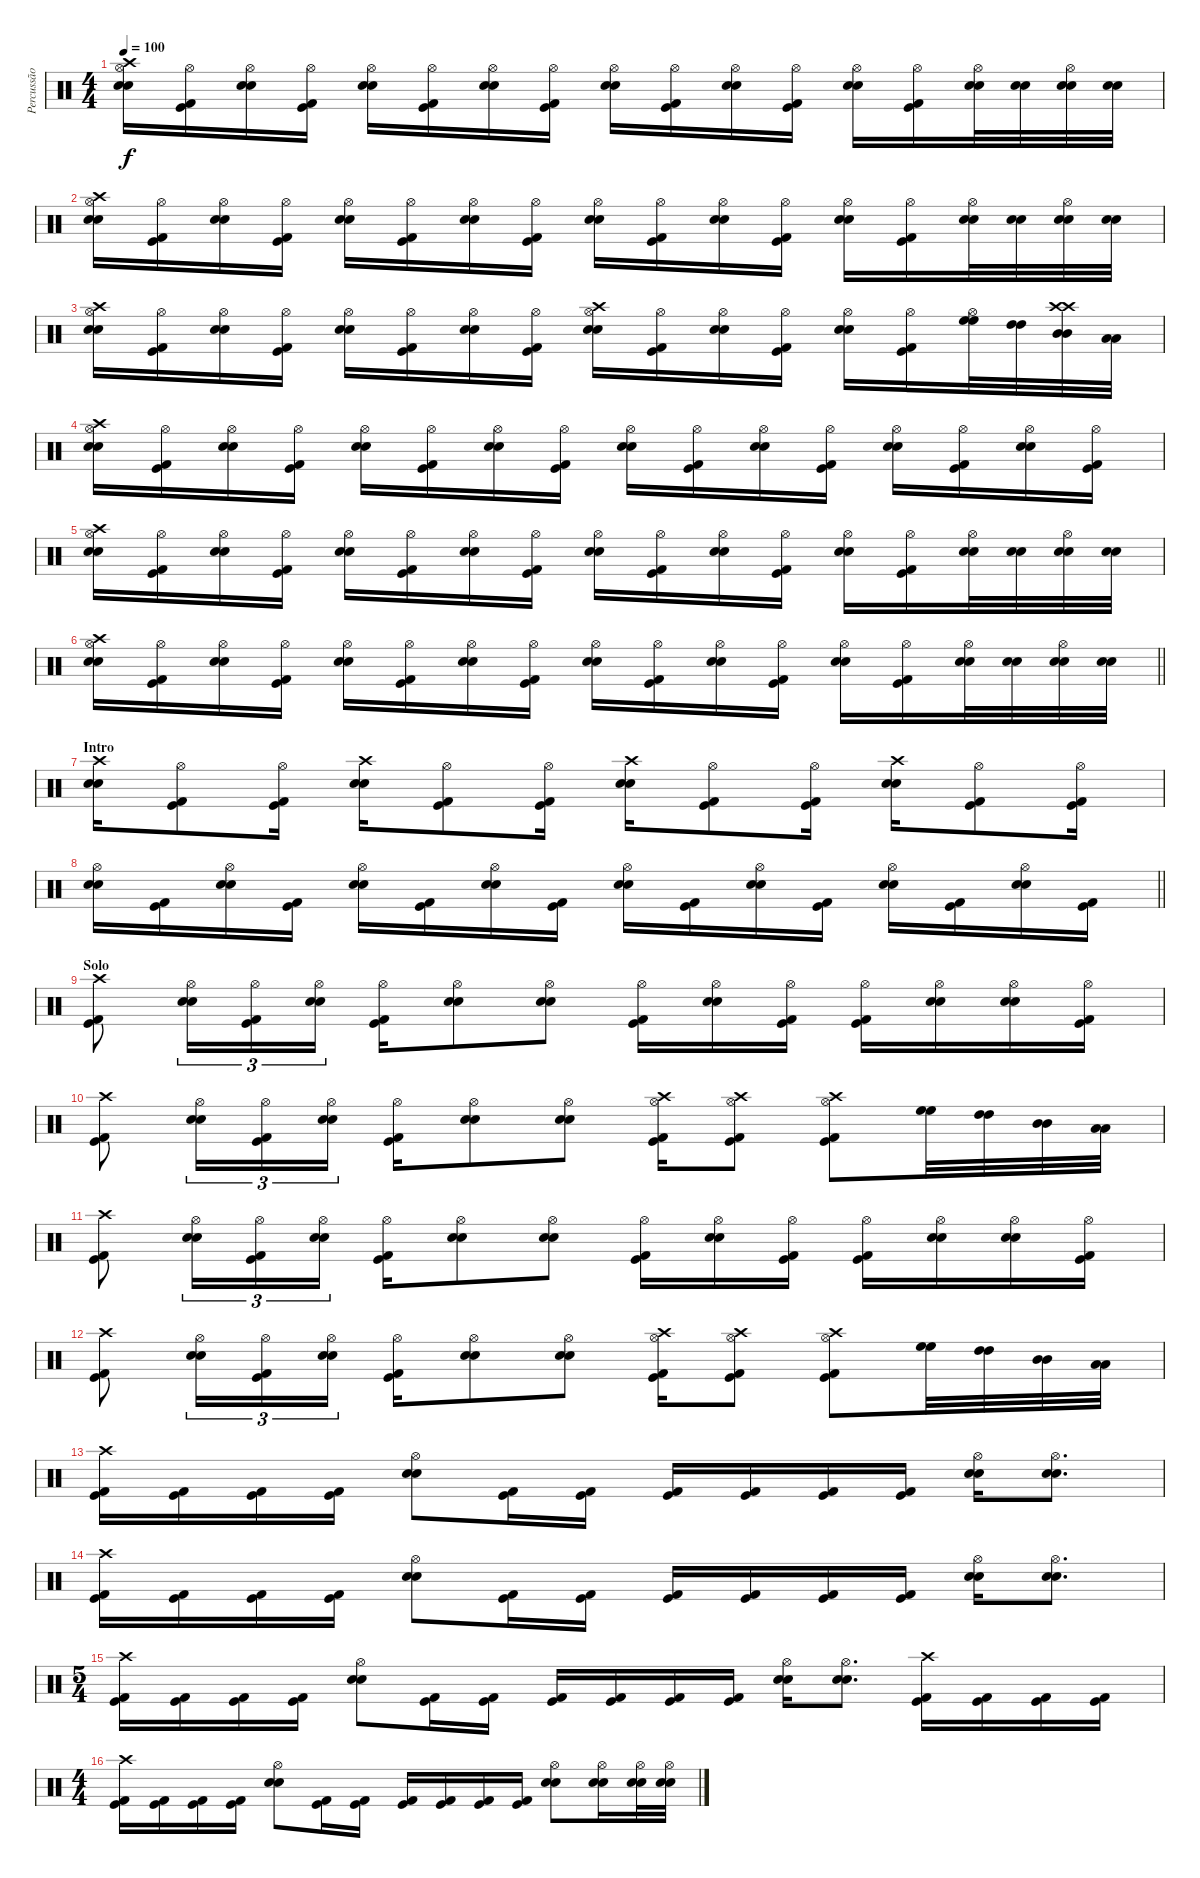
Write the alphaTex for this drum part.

\track ("Percussão" "Percussão") {instrument percussion}
\staff {score}
\articulation defaults
\ts (4 4)
\tempo 100
\clef neutral
\ks c
("Crash high (hit)" "Hi-Hat (open)" "Electric Snare (hit)" "Snare (hit) 2").16{dy f} ("Hi-Hat (open)" "Kick (hit) 2" "Kick (hit)").16 ("Hi-Hat (open)" "Electric Snare (hit)" "Snare (hit) 2").16 ("Hi-Hat (open)" "Kick (hit) 2" "Kick (hit)").16 ("Hi-Hat (open)" "Electric Snare (hit)" "Snare (hit) 2").16 ("Hi-Hat (open)" "Kick (hit) 2" "Kick (hit)").16 ("Hi-Hat (open)" "Electric Snare (hit)" "Snare (hit) 2").16 ("Hi-Hat (open)" "Kick (hit) 2" "Kick (hit)").16 ("Hi-Hat (open)" "Electric Snare (hit)" "Snare (hit) 2").16 ("Hi-Hat (open)" "Kick (hit) 2" "Kick (hit)").16 ("Hi-Hat (open)" "Electric Snare (hit)" "Snare (hit) 2").16 ("Hi-Hat (open)" "Kick (hit) 2" "Kick (hit)").16 ("Hi-Hat (open)" "Electric Snare (hit)" "Snare (hit) 2").16 ("Hi-Hat (open)" "Kick (hit) 2" "Kick (hit)").16 ("Hi-Hat (open)" "Electric Snare (hit)" "Snare (hit) 2").32 ("Electric Snare (hit)" "Snare (hit) 2").32 ("Hi-Hat (open)" "Electric Snare (hit)" "Snare (hit) 2").32 ("Electric Snare (hit)" "Snare (hit) 2").32 |
("Crash high (hit)" "Hi-Hat (open)" "Electric Snare (hit)" "Snare (hit) 2").16 ("Hi-Hat (open)" "Kick (hit) 2" "Kick (hit)").16 ("Hi-Hat (open)" "Electric Snare (hit)" "Snare (hit) 2").16 ("Hi-Hat (open)" "Kick (hit) 2" "Kick (hit)").16 ("Hi-Hat (open)" "Electric Snare (hit)" "Snare (hit) 2").16 ("Hi-Hat (open)" "Kick (hit) 2" "Kick (hit)").16 ("Hi-Hat (open)" "Electric Snare (hit)" "Snare (hit) 2").16 ("Hi-Hat (open)" "Kick (hit) 2" "Kick (hit)").16 ("Hi-Hat (open)" "Electric Snare (hit)" "Snare (hit) 2").16 ("Hi-Hat (open)" "Kick (hit) 2" "Kick (hit)").16 ("Hi-Hat (open)" "Electric Snare (hit)" "Snare (hit) 2").16 ("Hi-Hat (open)" "Kick (hit) 2" "Kick (hit)").16 ("Hi-Hat (open)" "Electric Snare (hit)" "Snare (hit) 2").16 ("Hi-Hat (open)" "Kick (hit) 2" "Kick (hit)").16 ("Hi-Hat (open)" "Electric Snare (hit)" "Snare (hit) 2").32 ("Electric Snare (hit)" "Snare (hit) 2").32 ("Hi-Hat (open)" "Electric Snare (hit)" "Snare (hit) 2").32 ("Electric Snare (hit)" "Snare (hit) 2").32 |
("Crash high (hit)" "Hi-Hat (open)" "Electric Snare (hit)" "Snare (hit) 2").16 ("Hi-Hat (open)" "Kick (hit) 2" "Kick (hit)").16 ("Hi-Hat (open)" "Electric Snare (hit)" "Snare (hit) 2").16 ("Hi-Hat (open)" "Kick (hit) 2" "Kick (hit)").16 ("Hi-Hat (open)" "Electric Snare (hit)" "Snare (hit) 2").16 ("Hi-Hat (open)" "Kick (hit) 2" "Kick (hit)").16 ("Hi-Hat (open)" "Electric Snare (hit)" "Snare (hit) 2").16 ("Hi-Hat (open)" "Kick (hit) 2" "Kick (hit)").16 ("Crash high (hit)" "Hi-Hat (open)" "Electric Snare (hit)" "Snare (hit) 2").16 ("Hi-Hat (open)" "Kick (hit) 2" "Kick (hit)").16 ("Hi-Hat (open)" "Electric Snare (hit)" "Snare (hit) 2").16 ("Hi-Hat (open)" "Kick (hit) 2" "Kick (hit)").16 ("Hi-Hat (open)" "Electric Snare (hit)" "Snare (hit) 2").16 ("Hi-Hat (open)" "Kick (hit) 2" "Kick (hit)").16 ("Hi-Hat (open)" "High Floor Tom (hit)" "High Floor Tom (hit)").32 ("High Tom (hit)" "High Tom (hit)").32 ("Crash high (hit)" "Crash high (hit)" "Mid Tom (hit)" "Mid Tom (hit)").32 ("Low Tom (hit)" "Low Tom (hit)").32 |
("Crash high (hit)" "Hi-Hat (open)" "Electric Snare (hit)" "Snare (hit) 2").16 ("Hi-Hat (open)" "Kick (hit) 2" "Kick (hit)").16 ("Hi-Hat (open)" "Electric Snare (hit)" "Snare (hit) 2").16 ("Hi-Hat (open)" "Kick (hit) 2" "Kick (hit)").16 ("Hi-Hat (open)" "Electric Snare (hit)" "Snare (hit) 2").16 ("Hi-Hat (open)" "Kick (hit) 2" "Kick (hit)").16 ("Hi-Hat (open)" "Electric Snare (hit)" "Snare (hit) 2").16 ("Hi-Hat (open)" "Kick (hit) 2" "Kick (hit)").16 ("Hi-Hat (open)" "Electric Snare (hit)" "Snare (hit) 2").16 ("Hi-Hat (open)" "Kick (hit) 2" "Kick (hit)").16 ("Hi-Hat (open)" "Electric Snare (hit)" "Snare (hit) 2").16 ("Hi-Hat (open)" "Kick (hit) 2" "Kick (hit)").16 ("Hi-Hat (open)" "Electric Snare (hit)" "Snare (hit) 2").16 ("Hi-Hat (open)" "Kick (hit) 2" "Kick (hit)").16 ("Hi-Hat (open)" "Electric Snare (hit)" "Snare (hit) 2").16 ("Hi-Hat (open)" "Kick (hit) 2" "Kick (hit)").16 |
("Crash high (hit)" "Hi-Hat (open)" "Electric Snare (hit)" "Snare (hit) 2").16 ("Hi-Hat (open)" "Kick (hit) 2" "Kick (hit)").16 ("Hi-Hat (open)" "Electric Snare (hit)" "Snare (hit) 2").16 ("Hi-Hat (open)" "Kick (hit) 2" "Kick (hit)").16 ("Hi-Hat (open)" "Electric Snare (hit)" "Snare (hit) 2").16 ("Hi-Hat (open)" "Kick (hit) 2" "Kick (hit)").16 ("Hi-Hat (open)" "Electric Snare (hit)" "Snare (hit) 2").16 ("Hi-Hat (open)" "Kick (hit) 2" "Kick (hit)").16 ("Hi-Hat (open)" "Electric Snare (hit)" "Snare (hit) 2").16 ("Hi-Hat (open)" "Kick (hit) 2" "Kick (hit)").16 ("Hi-Hat (open)" "Electric Snare (hit)" "Snare (hit) 2").16 ("Hi-Hat (open)" "Kick (hit) 2" "Kick (hit)").16 ("Hi-Hat (open)" "Electric Snare (hit)" "Snare (hit) 2").16 ("Hi-Hat (open)" "Kick (hit) 2" "Kick (hit)").16 ("Hi-Hat (open)" "Electric Snare (hit)" "Snare (hit) 2").32 ("Electric Snare (hit)" "Snare (hit) 2").32 ("Hi-Hat (open)" "Electric Snare (hit)" "Snare (hit) 2").32 ("Electric Snare (hit)" "Snare (hit) 2").32 |
\barLineRight lightlight
("Crash high (hit)" "Hi-Hat (open)" "Electric Snare (hit)" "Snare (hit) 2").16 ("Hi-Hat (open)" "Kick (hit) 2" "Kick (hit)").16 ("Hi-Hat (open)" "Electric Snare (hit)" "Snare (hit) 2").16 ("Hi-Hat (open)" "Kick (hit) 2" "Kick (hit)").16 ("Hi-Hat (open)" "Electric Snare (hit)" "Snare (hit) 2").16 ("Hi-Hat (open)" "Kick (hit) 2" "Kick (hit)").16 ("Hi-Hat (open)" "Electric Snare (hit)" "Snare (hit) 2").16 ("Hi-Hat (open)" "Kick (hit) 2" "Kick (hit)").16 ("Hi-Hat (open)" "Electric Snare (hit)" "Snare (hit) 2").16 ("Hi-Hat (open)" "Kick (hit) 2" "Kick (hit)").16 ("Hi-Hat (open)" "Electric Snare (hit)" "Snare (hit) 2").16 ("Hi-Hat (open)" "Kick (hit) 2" "Kick (hit)").16 ("Hi-Hat (open)" "Electric Snare (hit)" "Snare (hit) 2").16 ("Hi-Hat (open)" "Kick (hit) 2" "Kick (hit)").16 ("Hi-Hat (open)" "Electric Snare (hit)" "Snare (hit) 2").32 ("Electric Snare (hit)" "Snare (hit) 2").32 ("Hi-Hat (open)" "Electric Snare (hit)" "Snare (hit) 2").32 ("Electric Snare (hit)" "Snare (hit) 2").32 |
\section ("" "Intro")
("Crash high (hit)" "Electric Snare (hit)" "Snare (hit) 2").16 ("Hi-Hat (open)" "Kick (hit) 2" "Kick (hit)").8 ("Hi-Hat (open)" "Kick (hit) 2" "Kick (hit)").16 ("Crash high (hit)" "Electric Snare (hit)" "Snare (hit) 2").16 ("Hi-Hat (open)" "Kick (hit) 2" "Kick (hit)").8 ("Hi-Hat (open)" "Kick (hit) 2" "Kick (hit)").16 ("Crash high (hit)" "Electric Snare (hit)" "Snare (hit) 2").16 ("Hi-Hat (open)" "Kick (hit) 2" "Kick (hit)").8 ("Hi-Hat (open)" "Kick (hit) 2" "Kick (hit)").16 ("Crash high (hit)" "Electric Snare (hit)" "Snare (hit) 2").16 ("Hi-Hat (open)" "Kick (hit) 2" "Kick (hit)").8 ("Hi-Hat (open)" "Kick (hit) 2" "Kick (hit)").16 |
\barLineRight lightlight
("Hi-Hat (open)" "Electric Snare (hit)" "Snare (hit) 2").16 ("Kick (hit) 2" "Kick (hit)").16 ("Hi-Hat (open)" "Electric Snare (hit)" "Snare (hit) 2").16 ("Kick (hit) 2" "Kick (hit)").16 ("Hi-Hat (open)" "Electric Snare (hit)" "Snare (hit) 2").16 ("Kick (hit) 2" "Kick (hit)").16 ("Hi-Hat (open)" "Electric Snare (hit)" "Snare (hit) 2").16 ("Kick (hit) 2" "Kick (hit)").16 ("Hi-Hat (open)" "Electric Snare (hit)" "Snare (hit) 2").16 ("Kick (hit) 2" "Kick (hit)").16 ("Hi-Hat (open)" "Electric Snare (hit)" "Snare (hit) 2").16 ("Kick (hit) 2" "Kick (hit)").16 ("Hi-Hat (open)" "Electric Snare (hit)" "Snare (hit) 2").16 ("Kick (hit) 2" "Kick (hit)").16 ("Hi-Hat (open)" "Electric Snare (hit)" "Snare (hit) 2").16 ("Kick (hit) 2" "Kick (hit)").16 |
\section ("" "Solo")
("Crash high (hit)" "Kick (hit) 2" "Kick (hit)").8 ("Hi-Hat (open)" "Electric Snare (hit)" "Snare (hit) 2").16{tu (3 2)} ("Hi-Hat (open)" "Kick (hit) 2" "Kick (hit)").16{tu (3 2)} ("Hi-Hat (open)" "Electric Snare (hit)" "Snare (hit) 2").16{tu (3 2)} ("Hi-Hat (open)" "Kick (hit) 2" "Kick (hit)").16 ("Hi-Hat (open)" "Electric Snare (hit)" "Snare (hit) 2").8 ("Hi-Hat (open)" "Electric Snare (hit)" "Snare (hit) 2").8 ("Hi-Hat (open)" "Kick (hit) 2" "Kick (hit)").16 ("Hi-Hat (open)" "Electric Snare (hit)" "Snare (hit) 2").16 ("Hi-Hat (open)" "Kick (hit) 2" "Kick (hit)").16 ("Hi-Hat (open)" "Kick (hit) 2" "Kick (hit)").16 ("Hi-Hat (open)" "Electric Snare (hit)" "Snare (hit) 2").16 ("Hi-Hat (open)" "Electric Snare (hit)" "Snare (hit) 2").16 ("Hi-Hat (open)" "Kick (hit) 2" "Kick (hit)").16 |
("Crash high (hit)" "Kick (hit) 2" "Kick (hit)").8 ("Hi-Hat (open)" "Electric Snare (hit)" "Snare (hit) 2").16{tu (3 2)} ("Hi-Hat (open)" "Kick (hit) 2" "Kick (hit)").16{tu (3 2)} ("Hi-Hat (open)" "Electric Snare (hit)" "Snare (hit) 2").16{tu (3 2)} ("Hi-Hat (open)" "Kick (hit) 2" "Kick (hit)").16 ("Hi-Hat (open)" "Electric Snare (hit)" "Snare (hit) 2").8 ("Hi-Hat (open)" "Electric Snare (hit)" "Snare (hit) 2").8 ("Crash high (hit)" "Hi-Hat (open)" "Kick (hit) 2" "Kick (hit)").16 ("Crash high (hit)" "Hi-Hat (open)" "Kick (hit) 2" "Kick (hit)").8 ("Crash high (hit)" "Hi-Hat (open)" "Kick (hit) 2" "Kick (hit)").8 ("High Floor Tom (hit)" "High Floor Tom (hit)").32 ("High Tom (hit)" "High Tom (hit)").32 ("Mid Tom (hit)" "Mid Tom (hit)").32 ("Low Tom (hit)" "Low Tom (hit)").32 |
("Crash high (hit)" "Kick (hit) 2" "Kick (hit)").8 ("Hi-Hat (open)" "Electric Snare (hit)" "Snare (hit) 2").16{tu (3 2)} ("Hi-Hat (open)" "Kick (hit) 2" "Kick (hit)").16{tu (3 2)} ("Hi-Hat (open)" "Electric Snare (hit)" "Snare (hit) 2").16{tu (3 2)} ("Hi-Hat (open)" "Kick (hit) 2" "Kick (hit)").16 ("Hi-Hat (open)" "Electric Snare (hit)" "Snare (hit) 2").8 ("Hi-Hat (open)" "Electric Snare (hit)" "Snare (hit) 2").8 ("Hi-Hat (open)" "Kick (hit) 2" "Kick (hit)").16 ("Hi-Hat (open)" "Electric Snare (hit)" "Snare (hit) 2").16 ("Hi-Hat (open)" "Kick (hit) 2" "Kick (hit)").16 ("Hi-Hat (open)" "Kick (hit) 2" "Kick (hit)").16 ("Hi-Hat (open)" "Electric Snare (hit)" "Snare (hit) 2").16 ("Hi-Hat (open)" "Electric Snare (hit)" "Snare (hit) 2").16 ("Hi-Hat (open)" "Kick (hit) 2" "Kick (hit)").16 |
("Crash high (hit)" "Kick (hit) 2" "Kick (hit)").8 ("Hi-Hat (open)" "Electric Snare (hit)" "Snare (hit) 2").16{tu (3 2)} ("Hi-Hat (open)" "Kick (hit) 2" "Kick (hit)").16{tu (3 2)} ("Hi-Hat (open)" "Electric Snare (hit)" "Snare (hit) 2").16{tu (3 2)} ("Hi-Hat (open)" "Kick (hit) 2" "Kick (hit)").16 ("Hi-Hat (open)" "Electric Snare (hit)" "Snare (hit) 2").8 ("Hi-Hat (open)" "Electric Snare (hit)" "Snare (hit) 2").8 ("Crash high (hit)" "Hi-Hat (open)" "Kick (hit) 2" "Kick (hit)").16 ("Crash high (hit)" "Hi-Hat (open)" "Kick (hit) 2" "Kick (hit)").8 ("Crash high (hit)" "Hi-Hat (open)" "Kick (hit) 2" "Kick (hit)").8 ("High Floor Tom (hit)" "High Floor Tom (hit)").32 ("High Tom (hit)" "High Tom (hit)").32 ("Mid Tom (hit)" "Mid Tom (hit)").32 ("Low Tom (hit)" "Low Tom (hit)").32 |
("Crash high (hit)" "Kick (hit) 2" "Kick (hit)").16 ("Kick (hit) 2" "Kick (hit)").16 ("Kick (hit) 2" "Kick (hit)").16 ("Kick (hit) 2" "Kick (hit)").16 ("Hi-Hat (open)" "Electric Snare (hit)" "Snare (hit) 2").8 ("Kick (hit) 2" "Kick (hit)").16 ("Kick (hit) 2" "Kick (hit)").16 ("Kick (hit) 2" "Kick (hit)").16 ("Kick (hit) 2" "Kick (hit)").16 ("Kick (hit) 2" "Kick (hit)").16 ("Kick (hit) 2" "Kick (hit)").16 ("Hi-Hat (open)" "Electric Snare (hit)" "Snare (hit) 2").16 ("Hi-Hat (open)" "Electric Snare (hit)" "Snare (hit) 2").8{d} |
("Crash high (hit)" "Kick (hit) 2" "Kick (hit)").16 ("Kick (hit) 2" "Kick (hit)").16 ("Kick (hit) 2" "Kick (hit)").16 ("Kick (hit) 2" "Kick (hit)").16 ("Hi-Hat (open)" "Electric Snare (hit)" "Snare (hit) 2").8 ("Kick (hit) 2" "Kick (hit)").16 ("Kick (hit) 2" "Kick (hit)").16 ("Kick (hit) 2" "Kick (hit)").16 ("Kick (hit) 2" "Kick (hit)").16 ("Kick (hit) 2" "Kick (hit)").16 ("Kick (hit) 2" "Kick (hit)").16 ("Hi-Hat (open)" "Electric Snare (hit)" "Snare (hit) 2").16 ("Hi-Hat (open)" "Electric Snare (hit)" "Snare (hit) 2").8{d} |
\ts (5 4)
("Crash high (hit)" "Kick (hit) 2" "Kick (hit)").16 ("Kick (hit) 2" "Kick (hit)").16 ("Kick (hit) 2" "Kick (hit)").16 ("Kick (hit) 2" "Kick (hit)").16 ("Hi-Hat (open)" "Electric Snare (hit)" "Snare (hit) 2").8 ("Kick (hit) 2" "Kick (hit)").16 ("Kick (hit) 2" "Kick (hit)").16 ("Kick (hit) 2" "Kick (hit)").16 ("Kick (hit) 2" "Kick (hit)").16 ("Kick (hit) 2" "Kick (hit)").16 ("Kick (hit) 2" "Kick (hit)").16 ("Hi-Hat (open)" "Electric Snare (hit)" "Snare (hit) 2").16 ("Hi-Hat (open)" "Electric Snare (hit)" "Snare (hit) 2").8{d} ("Crash high (hit)" "Kick (hit) 2" "Kick (hit)").16 ("Kick (hit) 2" "Kick (hit)").16 ("Kick (hit) 2" "Kick (hit)").16 ("Kick (hit) 2" "Kick (hit)").16 |
\ts (4 4)
("Crash high (hit)" "Kick (hit) 2" "Kick (hit)").16 ("Kick (hit) 2" "Kick (hit)").16 ("Kick (hit) 2" "Kick (hit)").16 ("Kick (hit) 2" "Kick (hit)").16 ("Hi-Hat (open)" "Electric Snare (hit)" "Snare (hit) 2").8 ("Kick (hit) 2" "Kick (hit)").16 ("Kick (hit) 2" "Kick (hit)").16 ("Kick (hit) 2" "Kick (hit)").16 ("Kick (hit) 2" "Kick (hit)").16 ("Kick (hit) 2" "Kick (hit)").16 ("Kick (hit) 2" "Kick (hit)").16 ("Hi-Hat (open)" "Electric Snare (hit)" "Snare (hit) 2").8 ("Hi-Hat (open)" "Electric Snare (hit)" "Snare (hit) 2").16 ("Hi-Hat (open)" "Electric Snare (hit)" "Snare (hit) 2").32 ("Hi-Hat (open)" "Electric Snare (hit)" "Snare (hit) 2").32
